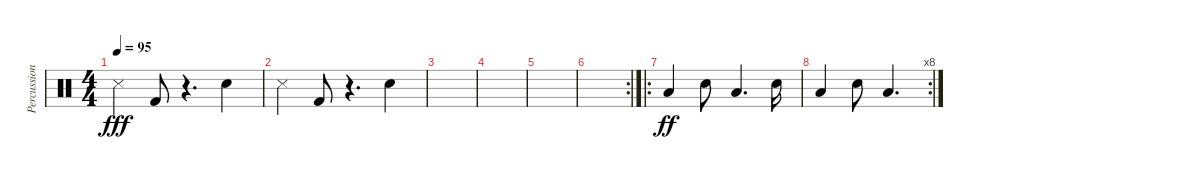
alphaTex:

\track ("Percussion" "Percussion") {instrument percussion}
\staff {score}
\articulation defaults
\ts (4 4)
\tempo 95
\clef neutral
\ks c "Snare (side stick) 3".4{dy fff} "Kick (hit) 2".8
r.4{d} "Hand Clap (hit)".4 |
"Snare (side stick) 3".4 "Kick (hit) 2".8 r.4{d} "Hand Clap (hit)".4 |
|
|
|
\rc 2
|
\ro "Low Tom (hit)".4{dy ff} "Hand Clap (hit)".8 "Low Tom (hit)".4{d} "Hand Clap (hit)".16
|
\rc 8 "Low Tom (hit)".4 "Hand Clap (hit)".8 "Low Tom (hit)".4{d}
